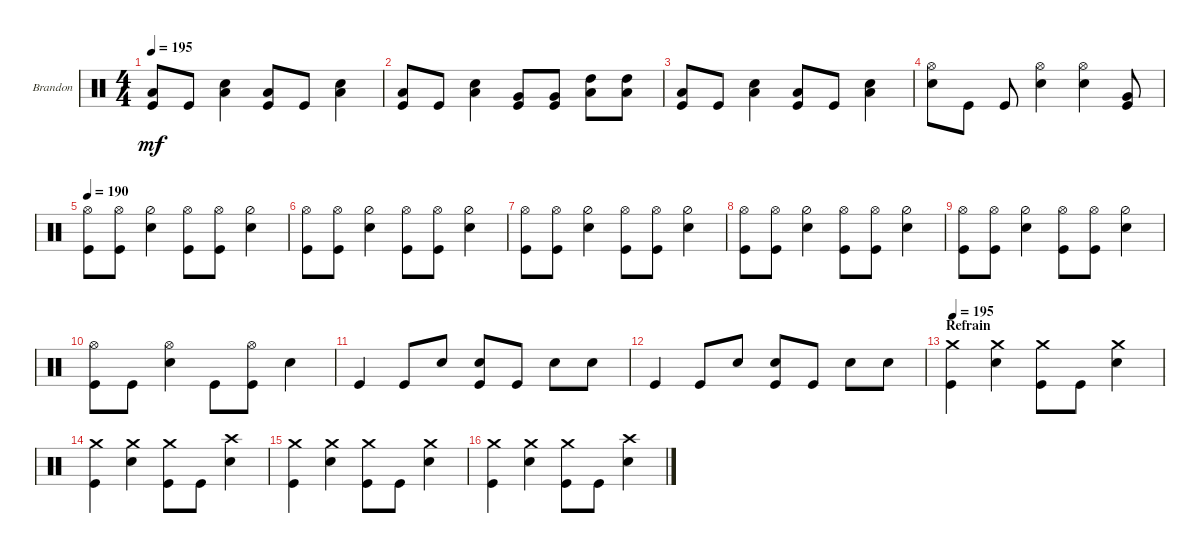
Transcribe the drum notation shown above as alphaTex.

\defaultSystemsLayout 4
\bracketExtendMode groupsimilarinstruments
\firstSystemTrackNameOrientation horizontal
\otherSystemsTrackNameOrientation horizontal
\track ("Drumkit" "Brandon") {instrument percussion}
\staff {score}
\articulation defaults
\ts (4 4)
\tempo 195
\clef neutral
\scale
0.333333
\ks c
("Kick (hit)" "Low Tom (hit)").8{dy mf} "Kick (hit)".8 ("Snare (hit) 2" "Low Tom (hit)").4 ("Kick (hit)" "Low Tom (hit)").8 "Kick (hit)".8 ("Snare (hit) 2" "Low Tom (hit)").4 |
\scale
0.333333 ("Kick (hit)" "Low Tom (hit)").8 "Kick (hit)".8 ("Snare (hit) 2" "Low Tom (hit)").4 ("Very Low Tom (hit)" "Kick (hit)").8 ("Very Low Tom (hit)" "Kick (hit)").8 ("Low Tom (hit)" "High Tom (hit)").8 ("Low Tom (hit)" "High Tom (hit)").8 |
\scale
0.333333 ("Kick (hit)" "Low Tom (hit)").8 "Kick (hit)".8 ("Snare (hit) 2" "Low Tom (hit)").4 ("Kick (hit)" "Low Tom (hit)").8 "Kick (hit)".8 ("Snare (hit) 2" "Low Tom (hit)").4 |
\scale
0.333333 ("Hi-Hat (open)" "Snare (hit) 2").8 "Kick (hit)".8 "Kick (hit)".8 ("Hi-Hat (open)" "Snare (hit) 2").4 ("Hi-Hat (open)" "Snare (hit) 2").4 ("Very Low Tom (hit)" "Kick (hit)").8 |
\tempo 190
\scale
0.333333 ("Kick (hit)" "Hi-Hat (open)").8 ("Kick (hit)" "Hi-Hat (open)").8 ("Snare (hit) 2" "Hi-Hat (half)").4 ("Kick (hit)" "Hi-Hat (open)").8 ("Kick (hit)" "Hi-Hat (open)").8 ("Snare (hit) 2" "Hi-Hat (half)").4 |
\scale
0.333333 ("Kick (hit)" "Hi-Hat (open)").8 ("Kick (hit)" "Hi-Hat (open)").8 ("Snare (hit) 2" "Hi-Hat (half)").4 ("Kick (hit)" "Hi-Hat (open)").8 ("Kick (hit)" "Hi-Hat (open)").8 ("Snare (hit) 2" "Hi-Hat (half)").4 |
\scale
0.333333 ("Kick (hit)" "Hi-Hat (open)").8 ("Kick (hit)" "Hi-Hat (open)").8 ("Snare (hit) 2" "Hi-Hat (half)").4 ("Kick (hit)" "Hi-Hat (open)").8 ("Kick (hit)" "Hi-Hat (open)").8 ("Snare (hit) 2" "Hi-Hat (half)").4 |
\scale
0.333333 ("Kick (hit)" "Hi-Hat (open)").8 ("Kick (hit)" "Hi-Hat (open)").8 ("Snare (hit) 2" "Hi-Hat (half)").4 ("Kick (hit)" "Hi-Hat (open)").8 ("Kick (hit)" "Hi-Hat (open)").8 ("Snare (hit) 2" "Hi-Hat (half)").4 |
\scale
0.333333 ("Kick (hit)" "Hi-Hat (open)").8 ("Kick (hit)" "Hi-Hat (open)").8 ("Snare (hit) 2" "Hi-Hat (half)").4 ("Kick (hit)" "Hi-Hat (open)").8 ("Kick (hit)" "Hi-Hat (open)").8 ("Snare (hit) 2" "Hi-Hat (half)").4 |
\scale
0.333333 ("Kick (hit)" "Hi-Hat (open)").8 "Kick (hit)".8 ("Snare (hit) 2" "Hi-Hat (open)").4 "Kick (hit)".8 ("Kick (hit)" "Hi-Hat (open)").8 "Snare (hit) 2".4 |
\scale
0.333333 "Kick (hit)".4 "Kick (hit)".8 "Snare (hit) 2".8 ("Snare (hit) 2" "Kick (hit)").8 "Kick (hit)".8 "Snare (hit) 2".8 "Snare (hit) 2".8 |
\scale
0.333333 "Kick (hit)".4 "Kick (hit)".8 "Snare (hit) 2".8 ("Snare (hit) 2" "Kick (hit)").8 "Kick (hit)".8 "Snare (hit) 2".8 "Snare (hit) 2".8 |
\section ("" "Refrain")
\tempo (195 0.00625)
\scale
0.333333 ("Kick (hit)" "Crash medium (hit)").4 ("Snare (hit) 2" "Crash medium (hit)").4 ("Kick (hit)" "Crash medium (hit)").8 "Kick (hit)".8 ("Snare (hit) 2" "Crash medium (hit)").4 |
\scale
0.333333 ("Kick (hit)" "Crash medium (hit)").4 ("Snare (hit) 2" "Crash medium (hit)").4 ("Kick (hit)" "Crash medium (hit)").8 "Kick (hit)".8 ("Snare (hit) 2" "Crash high (hit)").4 |
\scale
0.333333 ("Kick (hit)" "Crash medium (hit)").4 ("Snare (hit) 2" "Crash medium (hit)").4 ("Kick (hit)" "Crash medium (hit)").8 "Kick (hit)".8 ("Snare (hit) 2" "Crash medium (hit)").4 |
\scale
0.333333 ("Kick (hit)" "Crash medium (hit)").4 ("Snare (hit) 2" "Crash medium (hit)").4 ("Kick (hit)" "Crash medium (hit)").8 "Kick (hit)".8 ("Snare (hit) 2" "Crash high (hit)").4
